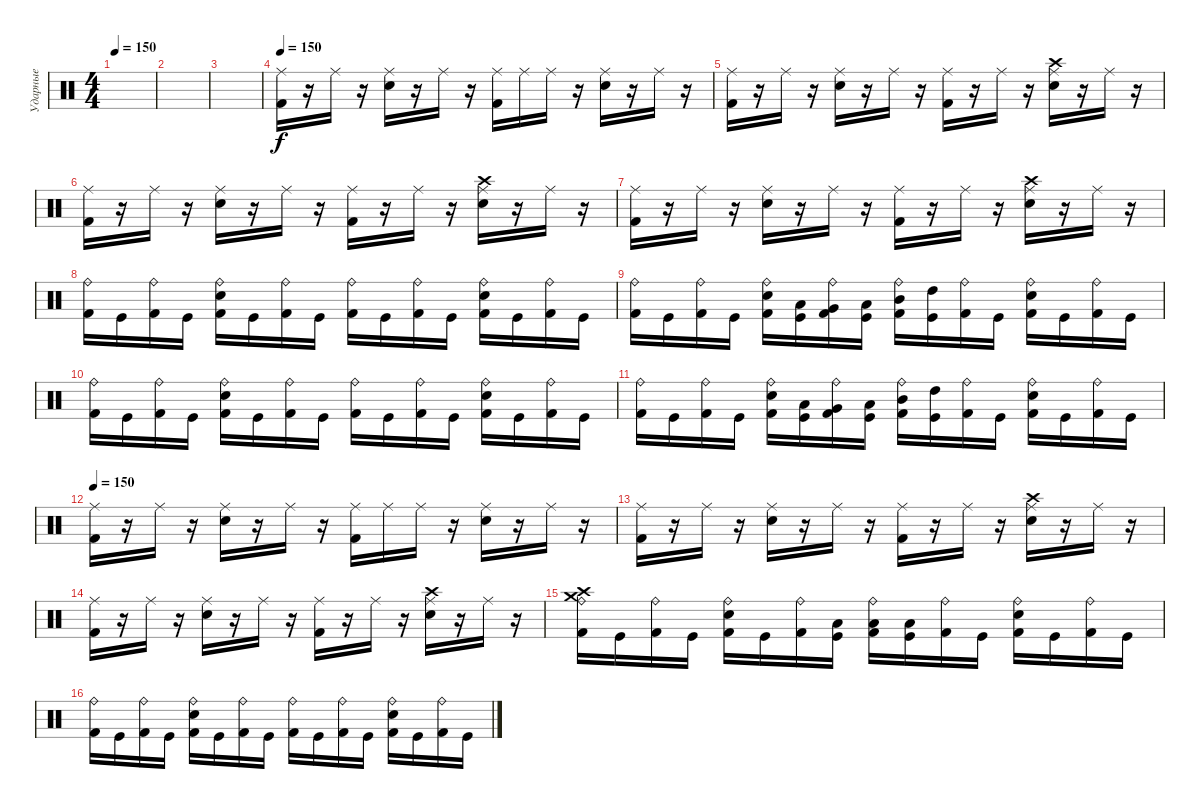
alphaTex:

\track ("Ударные" "Ударные") {instrument percussion}
\staff {score}
\articulation defaults
\ts (4 4)
\tempo 150
\clef neutral
\ks c
|
|
|
\tempo 150
("Kick (hit) 2" "Ride (middle)").16 r.16 "Ride (middle)".16 r.16 ("Electric Snare (hit)" "Ride (middle)").16 r.16 "Ride (middle)".16 r.16 ("Kick (hit) 2" "Ride (middle)").16 "Ride (middle)".16 "Ride (middle)".16 r.16 ("Electric Snare (hit)" "Ride (middle)").16 r.16 "Ride (middle)".16 r.16 |
("Kick (hit) 2" "Ride (middle)").16 r.16 "Ride (middle)".16 r.16 ("Electric Snare (hit)" "Ride (middle)").16 r.16 "Ride (middle)".16 r.16 ("Kick (hit) 2" "Ride (middle)").16 r.16 "Ride (middle)".16 r.16 ("Electric Snare (hit)" "Crash high (hit)" "Ride (middle)").16 r.16 "Ride (middle)".16 r.16 |
("Kick (hit) 2" "Ride (middle)").16 r.16 "Ride (middle)".16 r.16 ("Electric Snare (hit)" "Ride (middle)").16 r.16 "Ride (middle)".16 r.16 ("Kick (hit) 2" "Ride (middle)").16 r.16 "Ride (middle)".16 r.16 ("Electric Snare (hit)" "Crash high (hit)" "Ride (middle)").16 r.16 "Ride (middle)".16 r.16 |
("Kick (hit) 2" "Ride (middle)").16 r.16 "Ride (middle)".16 r.16 ("Electric Snare (hit)" "Ride (middle)").16 r.16 "Ride (middle)".16 r.16 ("Kick (hit) 2" "Ride (middle)").16 r.16 "Ride (middle)".16 r.16 ("Electric Snare (hit)" "Crash high (hit)" "Ride (middle)").16 r.16 "Ride (middle)".16 r.16 |
("Kick (hit) 2" "Ride (bell)").16 "Kick (hit)".16 ("Kick (hit) 2" "Ride (bell)").16 "Kick (hit)".16 ("Kick (hit) 2" "Electric Snare (hit)" "Ride (bell)").16 "Kick (hit)".16 ("Kick (hit) 2" "Ride (bell)").16 "Kick (hit)".16 ("Kick (hit) 2" "Ride (bell)").16 "Kick (hit)".16 ("Kick (hit) 2" "Ride (bell)").16 "Kick (hit)".16 ("Kick (hit) 2" "Electric Snare (hit)" "Ride (bell)").16 "Kick (hit)".16 ("Kick (hit) 2" "Ride (bell)").16 "Kick (hit)".16 |
("Kick (hit) 2" "Ride (bell)").16 "Kick (hit)".16 ("Kick (hit) 2" "Ride (bell)").16 "Kick (hit)".16 ("Kick (hit) 2" "Electric Snare (hit)" "Ride (bell)").16 ("Kick (hit)" "Low Floor Tom (hit)").16 ("Kick (hit) 2" "Very Low Tom (hit)" "Ride (bell)").16 ("Kick (hit)" "Low Tom (hit)").16 ("Kick (hit) 2" "Mid Tom (hit)" "Ride (bell)").16 ("Kick (hit)" "High Tom (hit)").16 ("Kick (hit) 2" "Ride (bell)").16 "Kick (hit)".16 ("Kick (hit) 2" "Electric Snare (hit)" "Ride (bell)").16 "Kick (hit)".16 ("Kick (hit) 2" "Ride (bell)").16 "Kick (hit)".16 |
("Kick (hit) 2" "Ride (bell)").16 "Kick (hit)".16 ("Kick (hit) 2" "Ride (bell)").16 "Kick (hit)".16 ("Kick (hit) 2" "Electric Snare (hit)" "Ride (bell)").16 "Kick (hit)".16 ("Kick (hit) 2" "Ride (bell)").16 "Kick (hit)".16 ("Kick (hit) 2" "Ride (bell)").16 "Kick (hit)".16 ("Kick (hit) 2" "Ride (bell)").16 "Kick (hit)".16 ("Kick (hit) 2" "Electric Snare (hit)" "Ride (bell)").16 "Kick (hit)".16 ("Kick (hit) 2" "Ride (bell)").16 "Kick (hit)".16 |
("Kick (hit) 2" "Ride (bell)").16 "Kick (hit)".16 ("Kick (hit) 2" "Ride (bell)").16 "Kick (hit)".16 ("Kick (hit) 2" "Electric Snare (hit)" "Ride (bell)").16 ("Kick (hit)" "Low Floor Tom (hit)").16 ("Kick (hit) 2" "Very Low Tom (hit)" "Ride (bell)").16 ("Kick (hit)" "Low Tom (hit)").16 ("Kick (hit) 2" "Mid Tom (hit)" "Ride (bell)").16 ("Kick (hit)" "High Tom (hit)").16 ("Kick (hit) 2" "Ride (bell)").16 "Kick (hit)".16 ("Kick (hit) 2" "Electric Snare (hit)" "Ride (bell)").16 "Kick (hit)".16 ("Kick (hit) 2" "Ride (bell)").16 "Kick (hit)".16 |
\tempo 150
("Kick (hit) 2" "Ride (middle)").16 r.16 "Ride (middle)".16 r.16 ("Electric Snare (hit)" "Ride (middle)").16 r.16 "Ride (middle)".16 r.16 ("Kick (hit) 2" "Ride (middle)").16 "Ride (middle)".16 "Ride (middle)".16 r.16 ("Electric Snare (hit)" "Ride (middle)").16 r.16 "Ride (middle)".16 r.16 |
("Kick (hit) 2" "Ride (middle)").16 r.16 "Ride (middle)".16 r.16 ("Electric Snare (hit)" "Ride (middle)").16 r.16 "Ride (middle)".16 r.16 ("Kick (hit) 2" "Ride (middle)").16 r.16 "Ride (middle)".16 r.16 ("Electric Snare (hit)" "Crash high (hit)" "Ride (middle)").16 r.16 "Ride (middle)".16 r.16 |
("Kick (hit) 2" "Ride (middle)").16 r.16 "Ride (middle)".16 r.16 ("Electric Snare (hit)" "Ride (middle)").16 r.16 "Ride (middle)".16 r.16 ("Kick (hit) 2" "Ride (middle)").16 r.16 "Ride (middle)".16 r.16 ("Electric Snare (hit)" "Crash high (hit)" "Ride (middle)").16 r.16 "Ride (middle)".16 r.16 |
("Kick (hit) 2" "Crash medium (hit)" "Crash high (hit)" "Ride (bell)").16 "Kick (hit)".16 ("Kick (hit) 2" "Ride (bell)").16 "Kick (hit)".16 ("Kick (hit) 2" "Electric Snare (hit)" "Ride (bell)").16 "Kick (hit)".16 ("Kick (hit) 2" "Ride (bell)").16 ("Kick (hit)" "Low Floor Tom (hit)").16 ("Kick (hit) 2" "Low Floor Tom (hit)" "Ride (bell)").16 ("Kick (hit)" "Low Floor Tom (hit)").16 ("Kick (hit) 2" "Ride (bell)").16 "Kick (hit)".16 ("Kick (hit) 2" "Electric Snare (hit)" "Ride (bell)").16 "Kick (hit)".16 ("Kick (hit) 2" "Ride (bell)").16 "Kick (hit)".16 |
("Kick (hit) 2" "Ride (bell)").16 "Kick (hit)".16 ("Kick (hit) 2" "Ride (bell)").16 "Kick (hit)".16 ("Kick (hit) 2" "Electric Snare (hit)" "Ride (bell)").16 "Kick (hit)".16 ("Kick (hit) 2" "Ride (bell)").16 "Kick (hit)".16 ("Kick (hit) 2" "Ride (bell)").16 "Kick (hit)".16 ("Kick (hit) 2" "Ride (bell)").16 "Kick (hit)".16 ("Kick (hit) 2" "Electric Snare (hit)" "Ride (bell)").16 "Kick (hit)".16 ("Kick (hit) 2" "Ride (bell)").16 "Kick (hit)".16
